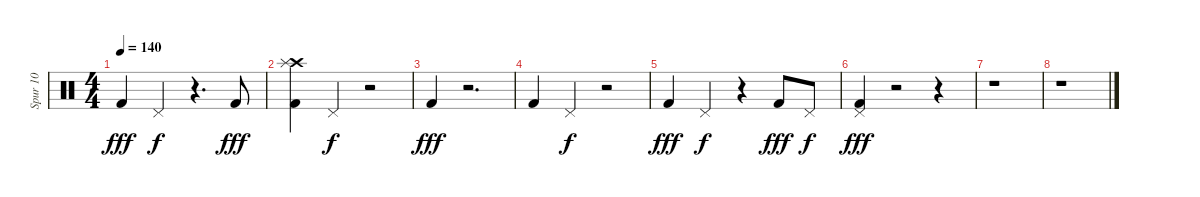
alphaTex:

\track ("Spur 10" "Spur 10") {instrument percussion}
\staff {score}
\articulation defaults
\ts (4 4)
\tempo 140
\clef neutral
\ks c "Kick (hit) 2".4{dy fff} "Pedal Hi-Hat (hit)".4{dy f}
r.4{d} "Kick (hit) 2".8{dy fff} |
("Crash high (hit)" "Splash (hit)" "Kick (hit) 2").4 "Pedal Hi-Hat (hit)".4{dy f} r.2 |
"Kick (hit) 2".4{dy fff} r.2{d} |
"Kick (hit) 2".4 "Pedal Hi-Hat (hit)".4{dy f} r.2 |
"Kick (hit) 2".4{dy fff} "Pedal Hi-Hat (hit)".4{dy f} r.4 "Kick (hit) 2".8{dy fff} "Pedal Hi-Hat (hit)".8{dy f} |
("Pedal Hi-Hat (hit)" "Kick (hit) 2").4{dy fff} r.2 r.4 |
r.1 |
r.1
